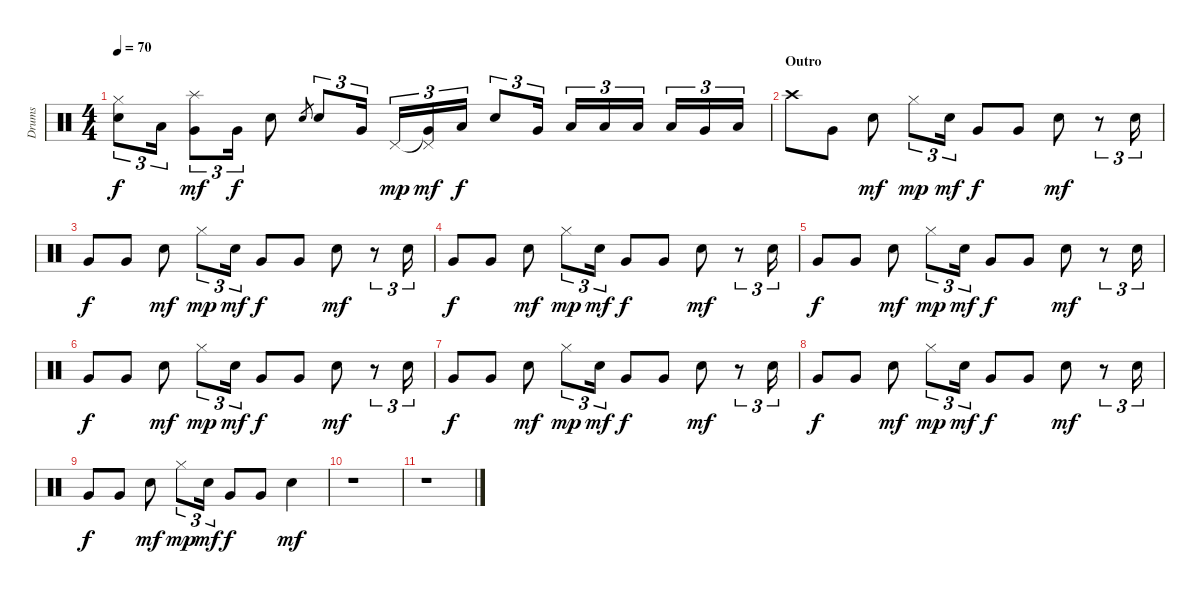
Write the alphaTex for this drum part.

\track ("Drums" "Drums") {instrument percussion}
\staff {score}
\articulation defaults
\ts (4 4)
\tempo 70
\clef neutral
\ks c
("Electric Snare (hit)" "Hi-Hat (closed)").8{tu (3 2) dy f volume 11} "Low Tom (hit)".16{tu (3 2)} ("Very Low Tom (hit)" "Splash (hit)").8{tu (3 2) dy mf} "Very Low Tom (hit)".16{tu (3 2) dy f} "Electric Snare (hit)".8 "Electric Snare (hit)".8{gr} "Electric Snare (hit)".8{tu (3 2)} "Very Low Tom (hit)".16{tu (3 2)} "Pedal Hi-Hat (hit)".16{tu (3 2) dy mp} ("Very Low Tom (hit)"{t} "Pedal Hi-Hat (hit)").16{tu (3 2) dy mf} "Low Tom (hit)".16{tu (3 2) dy f} "Electric Snare (hit)".8{tu (3 2)} "Very Low Tom (hit)".16{tu (3 2)} "Low Tom (hit)".16{tu (3 2)} "Low Tom (hit)".16{tu (3 2)} "Low Tom (hit)".16{tu (3 2)} "Low Tom (hit)".16{tu (3 2)} "Very Low Tom (hit)".16{tu (3 2)} "Low Floor Tom (hit)".16{tu (3 2)} |
\section ("" "Outro")
"Crash high (hit)".8 "Very Low Tom (hit)".8 "Electric Snare (hit)".8{dy mf} "Hi-Hat (closed)".8{tu (3 2) dy mp} "Electric Snare (hit)".16{tu (3 2) dy mf} "Very Low Tom (hit)".8{dy f} "Very Low Tom (hit)".8 "Electric Snare (hit)".8{dy mf} r.8{tu (3 2)} "Electric Snare (hit)".16{tu (3 2)} |
"Very Low Tom (hit)".8{dy f} "Very Low Tom (hit)".8 "Electric Snare (hit)".8{dy mf} "Hi-Hat (closed)".8{tu (3 2) dy mp} "Electric Snare (hit)".16{tu (3 2) dy mf} "Very Low Tom (hit)".8{dy f} "Very Low Tom (hit)".8 "Electric Snare (hit)".8{dy mf} r.8{tu (3 2)} "Electric Snare (hit)".16{tu (3 2)} |
"Very Low Tom (hit)".8{dy f} "Very Low Tom (hit)".8 "Electric Snare (hit)".8{dy mf} "Hi-Hat (closed)".8{tu (3 2) dy mp} "Electric Snare (hit)".16{tu (3 2) dy mf} "Very Low Tom (hit)".8{dy f} "Very Low Tom (hit)".8 "Electric Snare (hit)".8{dy mf} r.8{tu (3 2)} "Electric Snare (hit)".16{tu (3 2)} |
"Very Low Tom (hit)".8{dy f} "Very Low Tom (hit)".8 "Electric Snare (hit)".8{dy mf} "Hi-Hat (closed)".8{tu (3 2) dy mp} "Electric Snare (hit)".16{tu (3 2) dy mf} "Very Low Tom (hit)".8{dy f} "Very Low Tom (hit)".8 "Electric Snare (hit)".8{dy mf} r.8{tu (3 2)} "Electric Snare (hit)".16{tu (3 2)} |
"Very Low Tom (hit)".8{dy f} "Very Low Tom (hit)".8 "Electric Snare (hit)".8{dy mf} "Hi-Hat (closed)".8{tu (3 2) dy mp} "Electric Snare (hit)".16{tu (3 2) dy mf} "Very Low Tom (hit)".8{dy f} "Very Low Tom (hit)".8 "Electric Snare (hit)".8{dy mf} r.8{tu (3 2)} "Electric Snare (hit)".16{tu (3 2)} |
"Very Low Tom (hit)".8{dy f} "Very Low Tom (hit)".8 "Electric Snare (hit)".8{dy mf} "Hi-Hat (closed)".8{tu (3 2) dy mp} "Electric Snare (hit)".16{tu (3 2) dy mf} "Very Low Tom (hit)".8{dy f} "Very Low Tom (hit)".8 "Electric Snare (hit)".8{dy mf} r.8{tu (3 2)} "Electric Snare (hit)".16{tu (3 2)} |
"Very Low Tom (hit)".8{dy f} "Very Low Tom (hit)".8 "Electric Snare (hit)".8{dy mf} "Hi-Hat (closed)".8{tu (3 2) dy mp} "Electric Snare (hit)".16{tu (3 2) dy mf} "Very Low Tom (hit)".8{dy f} "Very Low Tom (hit)".8 "Electric Snare (hit)".8{dy mf} r.8{tu (3 2)} "Electric Snare (hit)".16{tu (3 2)} |
"Very Low Tom (hit)".8{dy f} "Very Low Tom (hit)".8 "Electric Snare (hit)".8{dy mf} "Hi-Hat (closed)".8{tu (3 2) dy mp} "Electric Snare (hit)".16{tu (3 2) dy mf} "Very Low Tom (hit)".8{dy f} "Very Low Tom (hit)".8 "Electric Snare (hit)".4{dy mf} |
r.1 |
r.1
